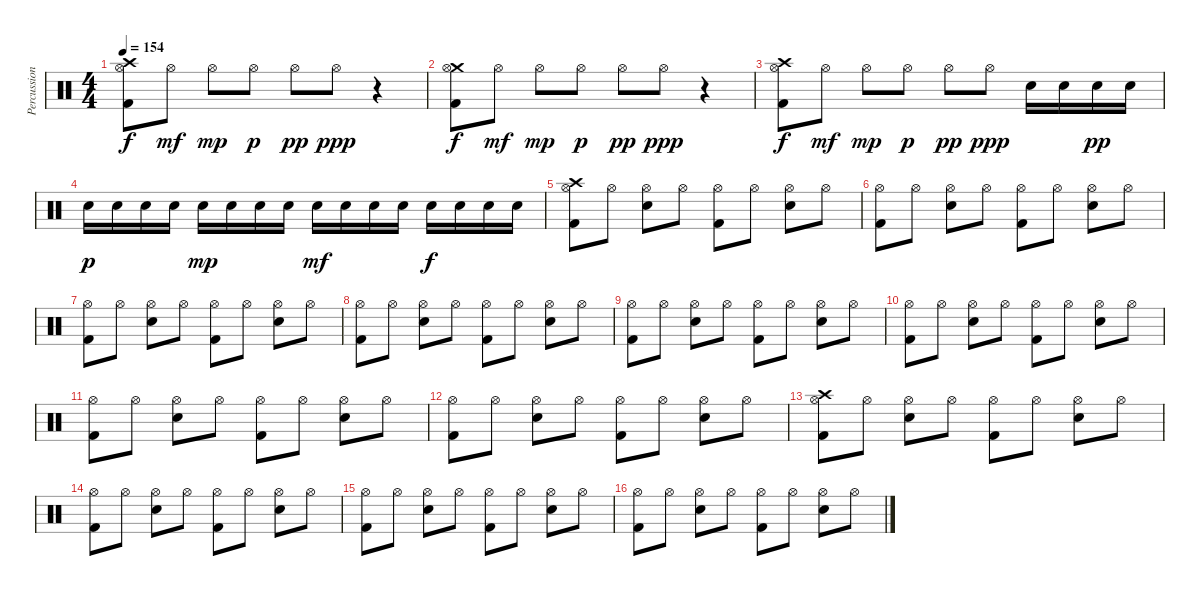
\track ("Percussion" "Percussion") {instrument percussion}
\staff {score}
\articulation defaults
\ts (4 4)
\tempo 154
\clef neutral
\ks c
("Crash high (hit)" "Hi-Hat (open)" "Kick (hit) 2").8{dy f} "Hi-Hat (open)".8{dy mf} "Hi-Hat (open)".8{dy mp} "Hi-Hat (open)".8{dy p} "Hi-Hat (open)".8{dy pp} "Hi-Hat (open)".8{dy ppp} r.4 |
("Crash medium (hit)" "Hi-Hat (open)" "Kick (hit) 2").8{dy f} "Hi-Hat (open)".8{dy mf} "Hi-Hat (open)".8{dy mp} "Hi-Hat (open)".8{dy p} "Hi-Hat (open)".8{dy pp} "Hi-Hat (open)".8{dy ppp} r.4 |
("Crash high (hit)" "Hi-Hat (open)" "Kick (hit) 2").8{dy f} "Hi-Hat (open)".8{dy mf} "Hi-Hat (open)".8{dy mp} "Hi-Hat (open)".8{dy p} "Hi-Hat (open)".8{dy pp} "Hi-Hat (open)".8{dy ppp} "Snare (hit) 2".16 "Snare (hit) 2".16 "Snare (hit) 2".16{dy pp} "Snare (hit) 2".16 |
"Snare (hit) 2".16{dy p} "Snare (hit) 2".16 "Snare (hit) 2".16 "Snare (hit) 2".16 "Snare (hit) 2".16{dy mp} "Snare (hit) 2".16 "Snare (hit) 2".16 "Snare (hit) 2".16 "Snare (hit) 2".16{dy mf} "Snare (hit) 2".16 "Snare (hit) 2".16 "Snare (hit) 2".16 "Snare (hit) 2".16{dy f} "Snare (hit) 2".16 "Snare (hit) 2".16 "Snare (hit) 2".16 |
\section ("" "")
("Crash high (hit)" "Hi-Hat (open)" "Kick (hit) 2").8 "Hi-Hat (open)".8 ("Hi-Hat (open)" "Snare (hit) 2").8 "Hi-Hat (open)".8 ("Hi-Hat (open)" "Kick (hit) 2").8 "Hi-Hat (open)".8 ("Hi-Hat (open)" "Snare (hit) 2").8 "Hi-Hat (open)".8 |
("Hi-Hat (open)" "Kick (hit) 2").8 "Hi-Hat (open)".8 ("Hi-Hat (open)" "Snare (hit) 2").8 "Hi-Hat (open)".8 ("Hi-Hat (open)" "Kick (hit) 2").8 "Hi-Hat (open)".8 ("Hi-Hat (open)" "Snare (hit) 2").8 "Hi-Hat (open)".8 |
("Hi-Hat (open)" "Kick (hit) 2").8 "Hi-Hat (open)".8 ("Hi-Hat (open)" "Snare (hit) 2").8 "Hi-Hat (open)".8 ("Hi-Hat (open)" "Kick (hit) 2").8 "Hi-Hat (open)".8 ("Hi-Hat (open)" "Snare (hit) 2").8 "Hi-Hat (open)".8 |
("Hi-Hat (open)" "Kick (hit) 2").8 "Hi-Hat (open)".8 ("Hi-Hat (open)" "Snare (hit) 2").8 "Hi-Hat (open)".8 ("Hi-Hat (open)" "Kick (hit) 2").8 "Hi-Hat (open)".8 ("Hi-Hat (open)" "Snare (hit) 2").8 "Hi-Hat (open)".8 |
("Hi-Hat (open)" "Kick (hit) 2").8 "Hi-Hat (open)".8 ("Hi-Hat (open)" "Snare (hit) 2").8 "Hi-Hat (open)".8 ("Hi-Hat (open)" "Kick (hit) 2").8 "Hi-Hat (open)".8 ("Hi-Hat (open)" "Snare (hit) 2").8 "Hi-Hat (open)".8 |
("Hi-Hat (open)" "Kick (hit) 2").8 "Hi-Hat (open)".8 ("Hi-Hat (open)" "Snare (hit) 2").8 "Hi-Hat (open)".8 ("Hi-Hat (open)" "Kick (hit) 2").8 "Hi-Hat (open)".8 ("Hi-Hat (open)" "Snare (hit) 2").8 "Hi-Hat (open)".8 |
("Hi-Hat (open)" "Kick (hit) 2").8 "Hi-Hat (open)".8 ("Hi-Hat (open)" "Snare (hit) 2").8 "Hi-Hat (open)".8 ("Hi-Hat (open)" "Kick (hit) 2").8 "Hi-Hat (open)".8 ("Hi-Hat (open)" "Snare (hit) 2").8 "Hi-Hat (open)".8 |
("Hi-Hat (open)" "Kick (hit) 2").8 "Hi-Hat (open)".8 ("Hi-Hat (open)" "Snare (hit) 2").8 "Hi-Hat (open)".8 ("Hi-Hat (open)" "Kick (hit) 2").8 "Hi-Hat (open)".8 ("Hi-Hat (open)" "Snare (hit) 2").8 "Hi-Hat (open)".8 |
\section ("" "")
("Crash high (hit)" "Hi-Hat (open)" "Kick (hit) 2").8 "Hi-Hat (open)".8 ("Hi-Hat (open)" "Snare (hit) 2").8 "Hi-Hat (open)".8 ("Hi-Hat (open)" "Kick (hit) 2").8 "Hi-Hat (open)".8 ("Hi-Hat (open)" "Snare (hit) 2").8 "Hi-Hat (open)".8 |
("Hi-Hat (open)" "Kick (hit) 2").8 "Hi-Hat (open)".8 ("Hi-Hat (open)" "Snare (hit) 2").8 "Hi-Hat (open)".8 ("Hi-Hat (open)" "Kick (hit) 2").8 "Hi-Hat (open)".8 ("Hi-Hat (open)" "Snare (hit) 2").8 "Hi-Hat (open)".8 |
("Hi-Hat (open)" "Kick (hit) 2").8 "Hi-Hat (open)".8 ("Hi-Hat (open)" "Snare (hit) 2").8 "Hi-Hat (open)".8 ("Hi-Hat (open)" "Kick (hit) 2").8 "Hi-Hat (open)".8 ("Hi-Hat (open)" "Snare (hit) 2").8 "Hi-Hat (open)".8 |
("Hi-Hat (open)" "Kick (hit) 2").8 "Hi-Hat (open)".8 ("Hi-Hat (open)" "Snare (hit) 2").8 "Hi-Hat (open)".8 ("Hi-Hat (open)" "Kick (hit) 2").8 "Hi-Hat (open)".8 ("Hi-Hat (open)" "Snare (hit) 2").8 "Hi-Hat (open)".8
